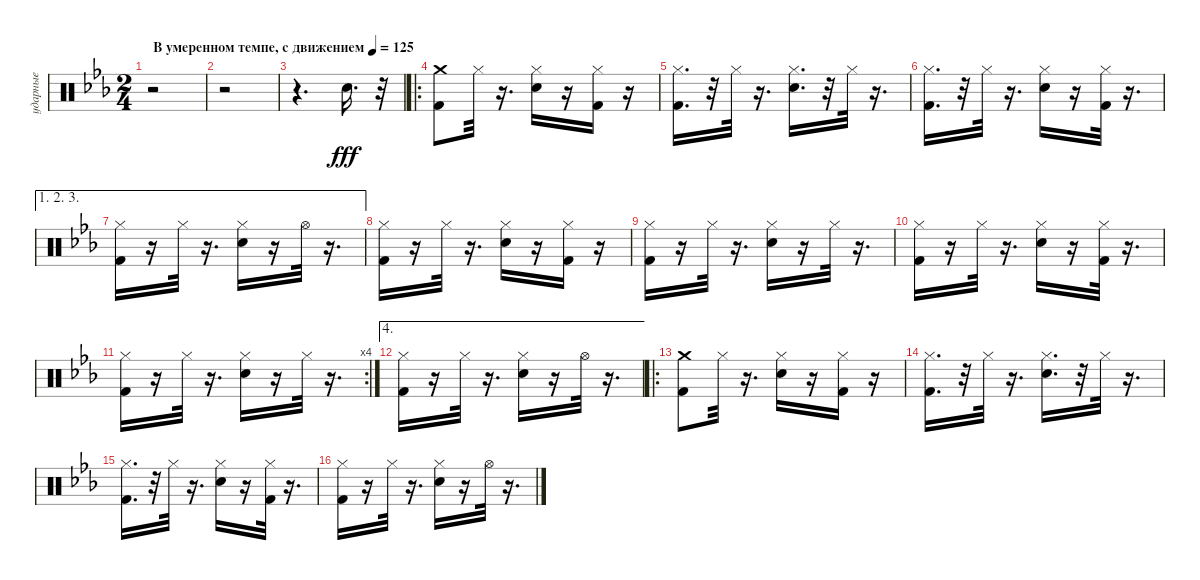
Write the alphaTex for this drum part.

\track ("ударные" "ударные") {instrument percussion}
\staff {score}
\articulation defaults
\ts (2 4)
\tempo (125 "В умеренном темпе, с движением")
\clef neutral
\ks cminor
r.2{dy fff} |
r.2 |
r.4{d} "Snare (hit) 2".16{d} r.32 |
\ro
("Kick (hit) 2" "Crash medium (hit)").8 "Hi-Hat (closed)".32 r.16{d} ("Snare (hit) 2" "Hi-Hat (closed)").16 r.16 ("Kick (hit) 2" "Hi-Hat (closed)").16 r.16 |
("Kick (hit) 2" "Hi-Hat (closed)").16{d} r.32 "Hi-Hat (closed)".32 r.16{d} ("Snare (hit) 2" "Hi-Hat (closed)").16{d} r.32 "Hi-Hat (closed)".32 r.16{d} |
("Kick (hit) 2" "Hi-Hat (closed)").16{d} r.32 "Hi-Hat (closed)".32 r.16{d} ("Snare (hit) 2" "Hi-Hat (closed)").16 r.16 ("Kick (hit) 2" "Hi-Hat (closed)").32 r.16{d} |
\ae (1 2 3)
("Kick (hit) 2" "Hi-Hat (closed)").16 r.16 "Hi-Hat (closed)".32 r.16{d} ("Snare (hit) 2" "Hi-Hat (closed)").16 r.16 "Hi-Hat (open)".32 r.16{d} |
("Kick (hit) 2" "Hi-Hat (closed)").16 r.16 "Hi-Hat (closed)".32 r.16{d} ("Snare (hit) 2" "Hi-Hat (closed)").16 r.16 ("Kick (hit) 2" "Hi-Hat (closed)").16 r.16 |
("Kick (hit) 2" "Hi-Hat (closed)").16 r.16 "Hi-Hat (closed)".32 r.16{d} ("Snare (hit) 2" "Hi-Hat (closed)").16 r.16 "Hi-Hat (closed)".32 r.16{d} |
("Kick (hit) 2" "Hi-Hat (closed)").16 r.16 "Hi-Hat (closed)".32 r.16{d} ("Snare (hit) 2" "Hi-Hat (closed)").16 r.16 ("Kick (hit) 2" "Hi-Hat (closed)").32 r.16{d} |
\rc 4
("Kick (hit) 2" "Hi-Hat (closed)").16 r.16 "Hi-Hat (closed)".32 r.16{d} ("Snare (hit) 2" "Hi-Hat (closed)").16 r.16 "Hi-Hat (closed)".32 r.16{d} |
\ae 4
("Kick (hit) 2" "Hi-Hat (closed)").16 r.16 "Hi-Hat (closed)".32 r.16{d} ("Snare (hit) 2" "Hi-Hat (closed)").16 r.16 "Hi-Hat (open)".32 r.16{d} |
\ro
("Kick (hit) 2" "Crash medium (hit)").8 "Hi-Hat (closed)".32 r.16{d} ("Snare (hit) 2" "Hi-Hat (closed)").16 r.16 ("Kick (hit) 2" "Hi-Hat (closed)").16 r.16 |
("Kick (hit) 2" "Hi-Hat (closed)").16{d} r.32 "Hi-Hat (closed)".32 r.16{d} ("Snare (hit) 2" "Hi-Hat (closed)").16{d} r.32 "Hi-Hat (closed)".32 r.16{d} |
("Kick (hit) 2" "Hi-Hat (closed)").16{d} r.32 "Hi-Hat (closed)".32 r.16{d} ("Snare (hit) 2" "Hi-Hat (closed)").16 r.16 ("Kick (hit) 2" "Hi-Hat (closed)").32 r.16{d} |
("Kick (hit) 2" "Hi-Hat (closed)").16 r.16 "Hi-Hat (closed)".32 r.16{d} ("Snare (hit) 2" "Hi-Hat (closed)").16 r.16 "Hi-Hat (open)".32 r.16{d}
